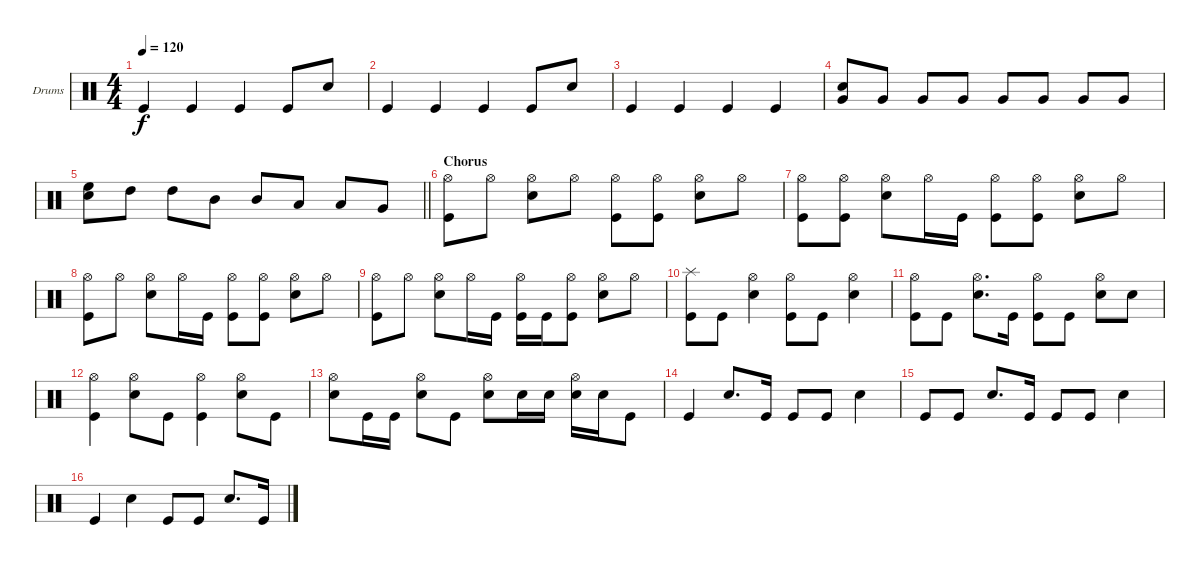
\bracketExtendMode groupsimilarinstruments
\firstSystemTrackNameOrientation horizontal
\otherSystemsTrackNameOrientation horizontal
\track ("Drumkit" "Drums") {instrument percussion}
\staff {score}
\articulation defaults
\ts (4 4)
\tempo 120
\clef neutral
\ks c "Kick (hit)".4{dy f} "Kick (hit)".4 "Kick (hit)".4 "Kick (hit)".8 "Snare (hit) 2".8
|
"Kick (hit)".4 "Kick (hit)".4 "Kick (hit)".4 "Kick (hit)".8 "Snare (hit) 2".8 |
"Kick (hit)".4 "Kick (hit)".4 "Kick (hit)".4 "Kick (hit)".4 |
("Snare (hit) 2" "Very Low Tom (hit)").8 "Very Low Tom (hit)".8 "Very Low Tom (hit)".8 "Very Low Tom (hit)".8 "Very Low Tom (hit)".8 "Very Low Tom (hit)".8 "Very Low Tom (hit)".8 "Very Low Tom (hit)".8 |
\barLineRight lightlight
("Snare (hit) 2" "High Floor Tom (hit)").8 "High Tom (hit)".8 "High Tom (hit)".8 "Mid Tom (hit)".8 "Mid Tom (hit)".8 "Low Tom (hit)".8 "Low Tom (hit)".8 "Very Low Tom (hit)".8 |
\section ("" "Chorus")
("Kick (hit)" "Hi-Hat (open)").8 "Hi-Hat (open)".8 ("Snare (hit) 2" "Hi-Hat (open)").8 "Hi-Hat (open)".8 ("Kick (hit)" "Hi-Hat (open)").8 ("Kick (hit)" "Hi-Hat (open)").8 ("Snare (hit) 2" "Hi-Hat (open)").8 "Hi-Hat (open)".8 |
("Kick (hit)" "Hi-Hat (open)").8 ("Kick (hit)" "Hi-Hat (open)").8 ("Snare (hit) 2" "Hi-Hat (open)").8 "Hi-Hat (open)".16 "Kick (hit)".16 ("Kick (hit)" "Hi-Hat (open)").8 ("Kick (hit)" "Hi-Hat (open)").8 ("Snare (hit) 2" "Hi-Hat (open)").8 "Hi-Hat (open)".8 |
("Kick (hit)" "Hi-Hat (open)").8 "Hi-Hat (open)".8 ("Snare (hit) 2" "Hi-Hat (open)").8 "Hi-Hat (open)".16 "Kick (hit)".16 ("Kick (hit)" "Hi-Hat (open)").8 ("Kick (hit)" "Hi-Hat (open)").8 ("Snare (hit) 2" "Hi-Hat (open)").8 "Hi-Hat (open)".8 |
("Kick (hit)" "Hi-Hat (open)").8 "Hi-Hat (open)".8 ("Snare (hit) 2" "Hi-Hat (open)").8 "Hi-Hat (open)".16 "Kick (hit)".16 ("Kick (hit)" "Hi-Hat (open)").16 "Kick (hit)".16 ("Kick (hit)" "Hi-Hat (open)").8 ("Snare (hit) 2" "Hi-Hat (open)").8 "Hi-Hat (open)".8 |
("Kick (hit)" "Splash (hit)").8 "Kick (hit)".8 ("Snare (hit) 2" "Hi-Hat (open)").4 ("Kick (hit)" "Hi-Hat (open)").8 "Kick (hit)".8 ("Snare (hit) 2" "Hi-Hat (open)").4 |
("Kick (hit)" "Hi-Hat (open)").8 "Kick (hit)".8 ("Snare (hit) 2" "Hi-Hat (open)").8{d} "Kick (hit)".16 ("Kick (hit)" "Hi-Hat (open)").8 "Kick (hit)".8 ("Snare (hit) 2" "Hi-Hat (open)").8 "Snare (hit) 2".8 |
("Kick (hit)" "Hi-Hat (open)").4 ("Snare (hit) 2" "Hi-Hat (open)").8 "Kick (hit)".8 ("Kick (hit)" "Hi-Hat (open)").4 ("Snare (hit) 2" "Hi-Hat (open)").8 "Kick (hit)".8 |
("Snare (hit) 2" "Hi-Hat (open)").8 "Kick (hit)".16 "Kick (hit)".16 ("Snare (hit) 2" "Hi-Hat (open)").8 "Kick (hit)".8 ("Snare (hit) 2" "Hi-Hat (open)").8 "Snare (hit) 2".16 "Snare (hit) 2".16 ("Snare (hit) 2" "Hi-Hat (open)").16 "Snare (hit) 2".16 "Kick (hit)".8 |
"Kick (hit)".4 "Snare (hit) 2".8{d} "Kick (hit)".16 "Kick (hit)".8 "Kick (hit)".8 "Snare (hit) 2".4 |
"Kick (hit)".8 "Kick (hit)".8 "Snare (hit) 2".8{d} "Kick (hit)".16 "Kick (hit)".8 "Kick (hit)".8 "Snare (hit) 2".4 |
"Kick (hit)".4 "Snare (hit) 2".4 "Kick (hit)".8 "Kick (hit)".8 "Snare (hit) 2".8{d} "Kick (hit)".16
